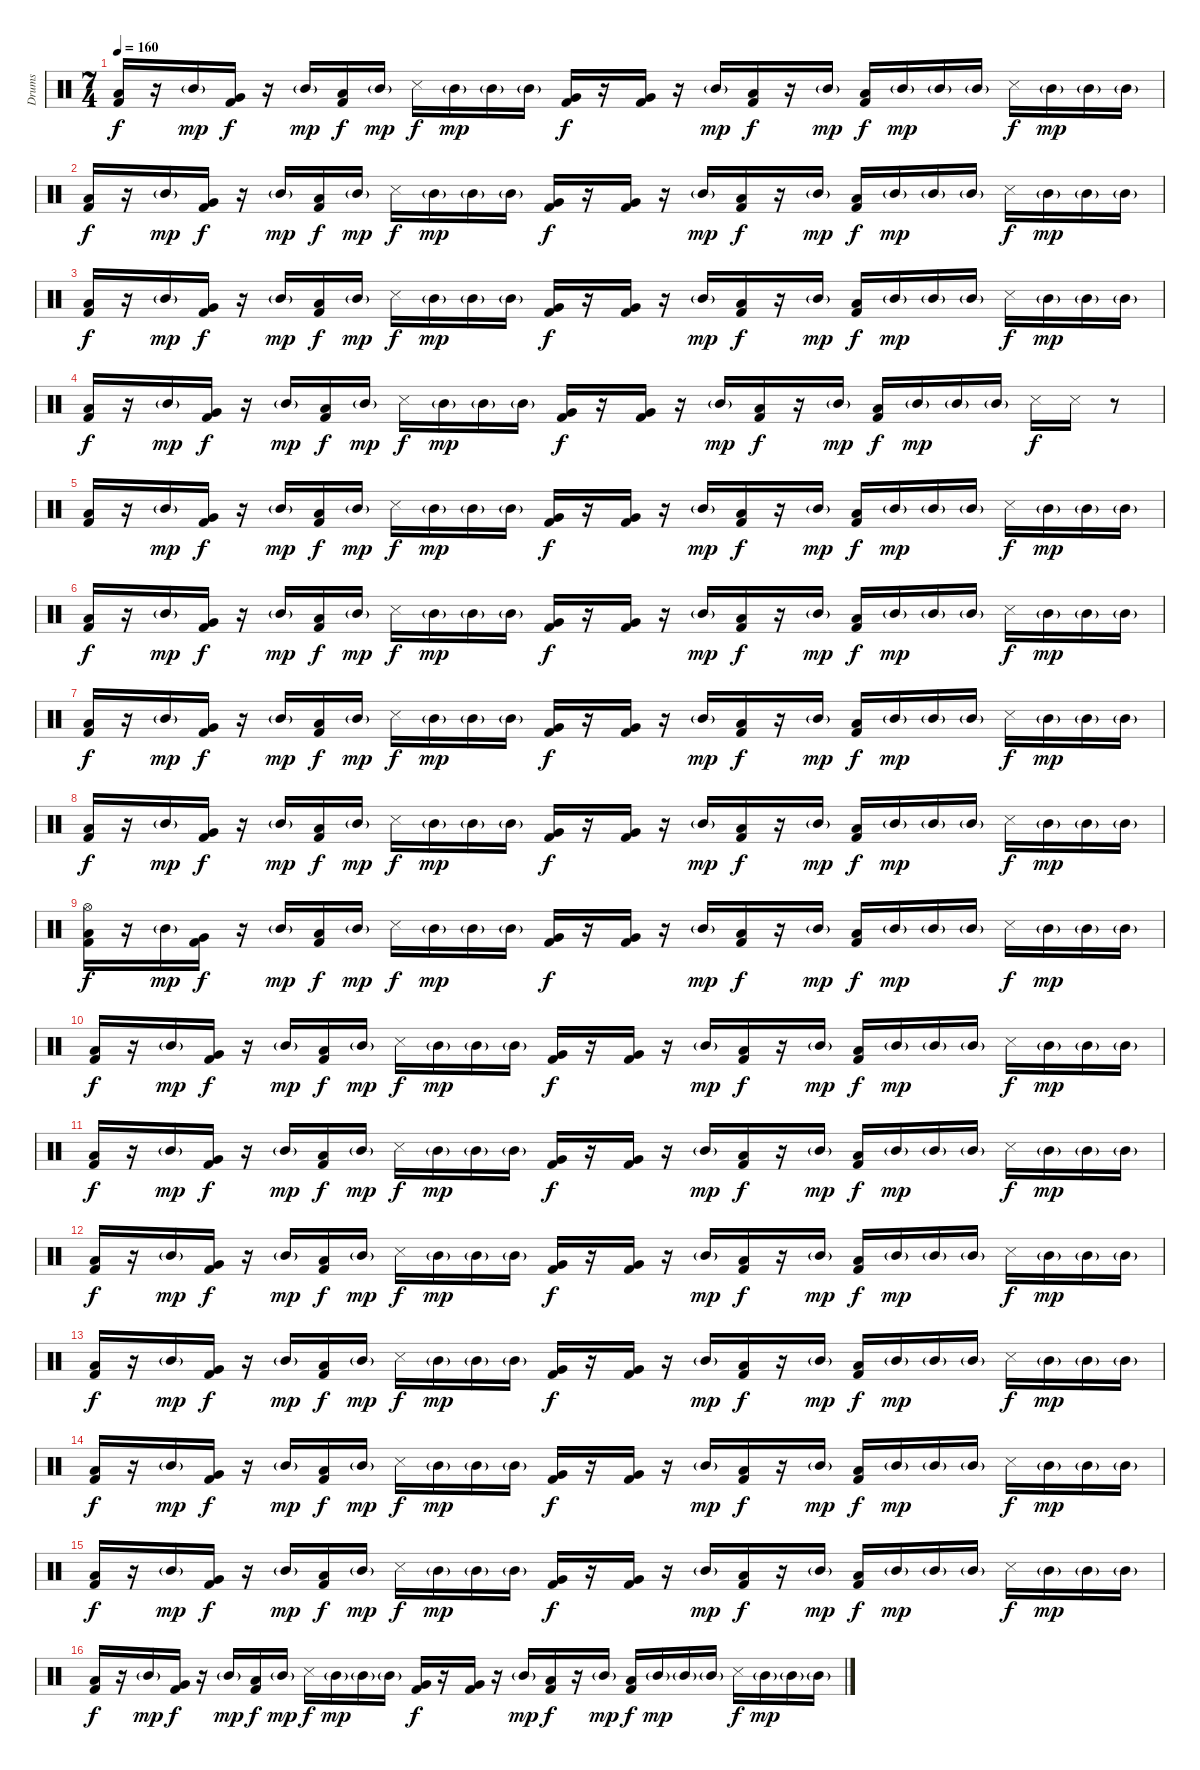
\track ("Drums" "Drums") {instrument percussion}
\staff {score}
\articulation defaults
\ts (7 4)
\tempo 160
\clef neutral
\ks c
("Low Floor Tom (hit)" "Kick (hit) 2").16{dy f} r.16 "Mid Tom (hit)"{g}.16{dy mp} ("Very Low Tom (hit)" "Kick (hit) 2").16{dy f} r.16 "Mid Tom (hit)"{g}.16{dy mp} ("Low Floor Tom (hit)" "Kick (hit) 2").16{dy f} "Mid Tom (hit)"{g}.16{dy mp} "Snare (side stick) 3".16{dy f} "Mid Tom (hit)"{g}.16{dy mp} "Mid Tom (hit)"{g}.16 "Mid Tom (hit)"{g}.16 ("Very Low Tom (hit)" "Kick (hit) 2").16{dy f} r.16 ("Very Low Tom (hit)" "Kick (hit) 2").16 r.16 "Mid Tom (hit)"{g}.16{dy mp} ("Low Floor Tom (hit)" "Kick (hit) 2").16{dy f} r.16 "Mid Tom (hit)"{g}.16{dy mp} ("Low Floor Tom (hit)" "Kick (hit) 2").16{dy f} "Mid Tom (hit)"{g}.16{dy mp} "Mid Tom (hit)"{g}.16 "Mid Tom (hit)"{g}.16 "Snare (side stick) 3".16{dy f} "Mid Tom (hit)"{g}.16{dy mp} "Mid Tom (hit)"{g}.16 "Mid Tom (hit)"{g}.16 |
("Low Floor Tom (hit)" "Kick (hit) 2").16{dy f} r.16 "Mid Tom (hit)"{g}.16{dy mp} ("Very Low Tom (hit)" "Kick (hit) 2").16{dy f} r.16 "Mid Tom (hit)"{g}.16{dy mp} ("Low Floor Tom (hit)" "Kick (hit) 2").16{dy f} "Mid Tom (hit)"{g}.16{dy mp} "Snare (side stick) 3".16{dy f} "Mid Tom (hit)"{g}.16{dy mp} "Mid Tom (hit)"{g}.16 "Mid Tom (hit)"{g}.16 ("Very Low Tom (hit)" "Kick (hit) 2").16{dy f} r.16 ("Very Low Tom (hit)" "Kick (hit) 2").16 r.16 "Mid Tom (hit)"{g}.16{dy mp} ("Low Floor Tom (hit)" "Kick (hit) 2").16{dy f} r.16 "Mid Tom (hit)"{g}.16{dy mp} ("Low Floor Tom (hit)" "Kick (hit) 2").16{dy f} "Mid Tom (hit)"{g}.16{dy mp} "Mid Tom (hit)"{g}.16 "Mid Tom (hit)"{g}.16 "Snare (side stick) 3".16{dy f} "Mid Tom (hit)"{g}.16{dy mp} "Mid Tom (hit)"{g}.16 "Mid Tom (hit)"{g}.16 |
("Low Floor Tom (hit)" "Kick (hit) 2").16{dy f} r.16 "Mid Tom (hit)"{g}.16{dy mp} ("Very Low Tom (hit)" "Kick (hit) 2").16{dy f} r.16 "Mid Tom (hit)"{g}.16{dy mp} ("Low Floor Tom (hit)" "Kick (hit) 2").16{dy f} "Mid Tom (hit)"{g}.16{dy mp} "Snare (side stick) 3".16{dy f} "Mid Tom (hit)"{g}.16{dy mp} "Mid Tom (hit)"{g}.16 "Mid Tom (hit)"{g}.16 ("Very Low Tom (hit)" "Kick (hit) 2").16{dy f} r.16 ("Very Low Tom (hit)" "Kick (hit) 2").16 r.16 "Mid Tom (hit)"{g}.16{dy mp} ("Low Floor Tom (hit)" "Kick (hit) 2").16{dy f} r.16 "Mid Tom (hit)"{g}.16{dy mp} ("Low Floor Tom (hit)" "Kick (hit) 2").16{dy f} "Mid Tom (hit)"{g}.16{dy mp} "Mid Tom (hit)"{g}.16 "Mid Tom (hit)"{g}.16 "Snare (side stick) 3".16{dy f} "Mid Tom (hit)"{g}.16{dy mp} "Mid Tom (hit)"{g}.16 "Mid Tom (hit)"{g}.16 |
("Low Floor Tom (hit)" "Kick (hit) 2").16{dy f} r.16 "Mid Tom (hit)"{g}.16{dy mp} ("Very Low Tom (hit)" "Kick (hit) 2").16{dy f} r.16 "Mid Tom (hit)"{g}.16{dy mp} ("Low Floor Tom (hit)" "Kick (hit) 2").16{dy f} "Mid Tom (hit)"{g}.16{dy mp} "Snare (side stick) 3".16{dy f} "Mid Tom (hit)"{g}.16{dy mp} "Mid Tom (hit)"{g}.16 "Mid Tom (hit)"{g}.16 ("Very Low Tom (hit)" "Kick (hit) 2").16{dy f} r.16 ("Very Low Tom (hit)" "Kick (hit) 2").16 r.16 "Mid Tom (hit)"{g}.16{dy mp} ("Low Floor Tom (hit)" "Kick (hit) 2").16{dy f} r.16 "Mid Tom (hit)"{g}.16{dy mp} ("Low Floor Tom (hit)" "Kick (hit) 2").16{dy f} "Mid Tom (hit)"{g}.16{dy mp} "Mid Tom (hit)"{g}.16 "Mid Tom (hit)"{g}.16 "Snare (side stick) 3".16{dy f} "Snare (side stick) 3".16 r.8 |
("Low Floor Tom (hit)" "Kick (hit) 2").16 r.16 "Mid Tom (hit)"{g}.16{dy mp} ("Very Low Tom (hit)" "Kick (hit) 2").16{dy f} r.16 "Mid Tom (hit)"{g}.16{dy mp} ("Low Floor Tom (hit)" "Kick (hit) 2").16{dy f} "Mid Tom (hit)"{g}.16{dy mp} "Snare (side stick) 3".16{dy f} "Mid Tom (hit)"{g}.16{dy mp} "Mid Tom (hit)"{g}.16 "Mid Tom (hit)"{g}.16 ("Very Low Tom (hit)" "Kick (hit) 2").16{dy f} r.16 ("Very Low Tom (hit)" "Kick (hit) 2").16 r.16 "Mid Tom (hit)"{g}.16{dy mp} ("Low Floor Tom (hit)" "Kick (hit) 2").16{dy f} r.16 "Mid Tom (hit)"{g}.16{dy mp} ("Low Floor Tom (hit)" "Kick (hit) 2").16{dy f} "Mid Tom (hit)"{g}.16{dy mp} "Mid Tom (hit)"{g}.16 "Mid Tom (hit)"{g}.16 "Snare (side stick) 3".16{dy f} "Mid Tom (hit)"{g}.16{dy mp} "Mid Tom (hit)"{g}.16 "Mid Tom (hit)"{g}.16 |
("Low Floor Tom (hit)" "Kick (hit) 2").16{dy f} r.16 "Mid Tom (hit)"{g}.16{dy mp} ("Very Low Tom (hit)" "Kick (hit) 2").16{dy f} r.16 "Mid Tom (hit)"{g}.16{dy mp} ("Low Floor Tom (hit)" "Kick (hit) 2").16{dy f} "Mid Tom (hit)"{g}.16{dy mp} "Snare (side stick) 3".16{dy f} "Mid Tom (hit)"{g}.16{dy mp} "Mid Tom (hit)"{g}.16 "Mid Tom (hit)"{g}.16 ("Very Low Tom (hit)" "Kick (hit) 2").16{dy f} r.16 ("Very Low Tom (hit)" "Kick (hit) 2").16 r.16 "Mid Tom (hit)"{g}.16{dy mp} ("Low Floor Tom (hit)" "Kick (hit) 2").16{dy f} r.16 "Mid Tom (hit)"{g}.16{dy mp} ("Low Floor Tom (hit)" "Kick (hit) 2").16{dy f} "Mid Tom (hit)"{g}.16{dy mp} "Mid Tom (hit)"{g}.16 "Mid Tom (hit)"{g}.16 "Snare (side stick) 3".16{dy f} "Mid Tom (hit)"{g}.16{dy mp} "Mid Tom (hit)"{g}.16 "Mid Tom (hit)"{g}.16 |
("Low Floor Tom (hit)" "Kick (hit) 2").16{dy f} r.16 "Mid Tom (hit)"{g}.16{dy mp} ("Very Low Tom (hit)" "Kick (hit) 2").16{dy f} r.16 "Mid Tom (hit)"{g}.16{dy mp} ("Low Floor Tom (hit)" "Kick (hit) 2").16{dy f} "Mid Tom (hit)"{g}.16{dy mp} "Snare (side stick) 3".16{dy f} "Mid Tom (hit)"{g}.16{dy mp} "Mid Tom (hit)"{g}.16 "Mid Tom (hit)"{g}.16 ("Very Low Tom (hit)" "Kick (hit) 2").16{dy f} r.16 ("Very Low Tom (hit)" "Kick (hit) 2").16 r.16 "Mid Tom (hit)"{g}.16{dy mp} ("Low Floor Tom (hit)" "Kick (hit) 2").16{dy f} r.16 "Mid Tom (hit)"{g}.16{dy mp} ("Low Floor Tom (hit)" "Kick (hit) 2").16{dy f} "Mid Tom (hit)"{g}.16{dy mp} "Mid Tom (hit)"{g}.16 "Mid Tom (hit)"{g}.16 "Snare (side stick) 3".16{dy f} "Mid Tom (hit)"{g}.16{dy mp} "Mid Tom (hit)"{g}.16 "Mid Tom (hit)"{g}.16 |
("Low Floor Tom (hit)" "Kick (hit) 2").16{dy f} r.16 "Mid Tom (hit)"{g}.16{dy mp} ("Very Low Tom (hit)" "Kick (hit) 2").16{dy f} r.16 "Mid Tom (hit)"{g}.16{dy mp} ("Low Floor Tom (hit)" "Kick (hit) 2").16{dy f} "Mid Tom (hit)"{g}.16{dy mp} "Snare (side stick) 3".16{dy f} "Mid Tom (hit)"{g}.16{dy mp} "Mid Tom (hit)"{g}.16 "Mid Tom (hit)"{g}.16 ("Very Low Tom (hit)" "Kick (hit) 2").16{dy f} r.16 ("Very Low Tom (hit)" "Kick (hit) 2").16 r.16 "Mid Tom (hit)"{g}.16{dy mp} ("Low Floor Tom (hit)" "Kick (hit) 2").16{dy f} r.16 "Mid Tom (hit)"{g}.16{dy mp} ("Low Floor Tom (hit)" "Kick (hit) 2").16{dy f} "Mid Tom (hit)"{g}.16{dy mp} "Mid Tom (hit)"{g}.16 "Mid Tom (hit)"{g}.16 "Snare (side stick) 3".16{dy f} "Mid Tom (hit)"{g}.16{dy mp} "Mid Tom (hit)"{g}.16 "Mid Tom (hit)"{g}.16 |
("Hi-Hat (open)" "Low Floor Tom (hit)" "Kick (hit) 2").16{dy f} r.16 "Mid Tom (hit)"{g}.16{dy mp} ("Very Low Tom (hit)" "Kick (hit) 2").16{dy f} r.16 "Mid Tom (hit)"{g}.16{dy mp} ("Low Floor Tom (hit)" "Kick (hit) 2").16{dy f} "Mid Tom (hit)"{g}.16{dy mp} "Snare (side stick) 3".16{dy f} "Mid Tom (hit)"{g}.16{dy mp} "Mid Tom (hit)"{g}.16 "Mid Tom (hit)"{g}.16 ("Very Low Tom (hit)" "Kick (hit) 2").16{dy f} r.16 ("Very Low Tom (hit)" "Kick (hit) 2").16 r.16 "Mid Tom (hit)"{g}.16{dy mp} ("Low Floor Tom (hit)" "Kick (hit) 2").16{dy f} r.16 "Mid Tom (hit)"{g}.16{dy mp} ("Low Floor Tom (hit)" "Kick (hit) 2").16{dy f} "Mid Tom (hit)"{g}.16{dy mp} "Mid Tom (hit)"{g}.16 "Mid Tom (hit)"{g}.16 "Snare (side stick) 3".16{dy f} "Mid Tom (hit)"{g}.16{dy mp} "Mid Tom (hit)"{g}.16 "Mid Tom (hit)"{g}.16 |
("Low Floor Tom (hit)" "Kick (hit) 2").16{dy f} r.16 "Mid Tom (hit)"{g}.16{dy mp} ("Very Low Tom (hit)" "Kick (hit) 2").16{dy f} r.16 "Mid Tom (hit)"{g}.16{dy mp} ("Low Floor Tom (hit)" "Kick (hit) 2").16{dy f} "Mid Tom (hit)"{g}.16{dy mp} "Snare (side stick) 3".16{dy f} "Mid Tom (hit)"{g}.16{dy mp} "Mid Tom (hit)"{g}.16 "Mid Tom (hit)"{g}.16 ("Very Low Tom (hit)" "Kick (hit) 2").16{dy f} r.16 ("Very Low Tom (hit)" "Kick (hit) 2").16 r.16 "Mid Tom (hit)"{g}.16{dy mp} ("Low Floor Tom (hit)" "Kick (hit) 2").16{dy f} r.16 "Mid Tom (hit)"{g}.16{dy mp} ("Low Floor Tom (hit)" "Kick (hit) 2").16{dy f} "Mid Tom (hit)"{g}.16{dy mp} "Mid Tom (hit)"{g}.16 "Mid Tom (hit)"{g}.16 "Snare (side stick) 3".16{dy f} "Mid Tom (hit)"{g}.16{dy mp} "Mid Tom (hit)"{g}.16 "Mid Tom (hit)"{g}.16 |
("Low Floor Tom (hit)" "Kick (hit) 2").16{dy f} r.16 "Mid Tom (hit)"{g}.16{dy mp} ("Very Low Tom (hit)" "Kick (hit) 2").16{dy f} r.16 "Mid Tom (hit)"{g}.16{dy mp} ("Low Floor Tom (hit)" "Kick (hit) 2").16{dy f} "Mid Tom (hit)"{g}.16{dy mp} "Snare (side stick) 3".16{dy f} "Mid Tom (hit)"{g}.16{dy mp} "Mid Tom (hit)"{g}.16 "Mid Tom (hit)"{g}.16 ("Very Low Tom (hit)" "Kick (hit) 2").16{dy f} r.16 ("Very Low Tom (hit)" "Kick (hit) 2").16 r.16 "Mid Tom (hit)"{g}.16{dy mp} ("Low Floor Tom (hit)" "Kick (hit) 2").16{dy f} r.16 "Mid Tom (hit)"{g}.16{dy mp} ("Low Floor Tom (hit)" "Kick (hit) 2").16{dy f} "Mid Tom (hit)"{g}.16{dy mp} "Mid Tom (hit)"{g}.16 "Mid Tom (hit)"{g}.16 "Snare (side stick) 3".16{dy f} "Mid Tom (hit)"{g}.16{dy mp} "Mid Tom (hit)"{g}.16 "Mid Tom (hit)"{g}.16 |
("Low Floor Tom (hit)" "Kick (hit) 2").16{dy f} r.16 "Mid Tom (hit)"{g}.16{dy mp} ("Very Low Tom (hit)" "Kick (hit) 2").16{dy f} r.16 "Mid Tom (hit)"{g}.16{dy mp} ("Low Floor Tom (hit)" "Kick (hit) 2").16{dy f} "Mid Tom (hit)"{g}.16{dy mp} "Snare (side stick) 3".16{dy f} "Mid Tom (hit)"{g}.16{dy mp} "Mid Tom (hit)"{g}.16 "Mid Tom (hit)"{g}.16 ("Very Low Tom (hit)" "Kick (hit) 2").16{dy f} r.16 ("Very Low Tom (hit)" "Kick (hit) 2").16 r.16 "Mid Tom (hit)"{g}.16{dy mp} ("Low Floor Tom (hit)" "Kick (hit) 2").16{dy f} r.16 "Mid Tom (hit)"{g}.16{dy mp} ("Low Floor Tom (hit)" "Kick (hit) 2").16{dy f} "Mid Tom (hit)"{g}.16{dy mp} "Mid Tom (hit)"{g}.16 "Mid Tom (hit)"{g}.16 "Snare (side stick) 3".16{dy f} "Mid Tom (hit)"{g}.16{dy mp} "Mid Tom (hit)"{g}.16 "Mid Tom (hit)"{g}.16 |
("Low Floor Tom (hit)" "Kick (hit) 2").16{dy f} r.16 "Mid Tom (hit)"{g}.16{dy mp} ("Very Low Tom (hit)" "Kick (hit) 2").16{dy f} r.16 "Mid Tom (hit)"{g}.16{dy mp} ("Low Floor Tom (hit)" "Kick (hit) 2").16{dy f} "Mid Tom (hit)"{g}.16{dy mp} "Snare (side stick) 3".16{dy f} "Mid Tom (hit)"{g}.16{dy mp} "Mid Tom (hit)"{g}.16 "Mid Tom (hit)"{g}.16 ("Very Low Tom (hit)" "Kick (hit) 2").16{dy f} r.16 ("Very Low Tom (hit)" "Kick (hit) 2").16 r.16 "Mid Tom (hit)"{g}.16{dy mp} ("Low Floor Tom (hit)" "Kick (hit) 2").16{dy f} r.16 "Mid Tom (hit)"{g}.16{dy mp} ("Low Floor Tom (hit)" "Kick (hit) 2").16{dy f} "Mid Tom (hit)"{g}.16{dy mp} "Mid Tom (hit)"{g}.16 "Mid Tom (hit)"{g}.16 "Snare (side stick) 3".16{dy f} "Mid Tom (hit)"{g}.16{dy mp} "Mid Tom (hit)"{g}.16 "Mid Tom (hit)"{g}.16 |
("Low Floor Tom (hit)" "Kick (hit) 2").16{dy f} r.16 "Mid Tom (hit)"{g}.16{dy mp} ("Very Low Tom (hit)" "Kick (hit) 2").16{dy f} r.16 "Mid Tom (hit)"{g}.16{dy mp} ("Low Floor Tom (hit)" "Kick (hit) 2").16{dy f} "Mid Tom (hit)"{g}.16{dy mp} "Snare (side stick) 3".16{dy f} "Mid Tom (hit)"{g}.16{dy mp} "Mid Tom (hit)"{g}.16 "Mid Tom (hit)"{g}.16 ("Very Low Tom (hit)" "Kick (hit) 2").16{dy f} r.16 ("Very Low Tom (hit)" "Kick (hit) 2").16 r.16 "Mid Tom (hit)"{g}.16{dy mp} ("Low Floor Tom (hit)" "Kick (hit) 2").16{dy f} r.16 "Mid Tom (hit)"{g}.16{dy mp} ("Low Floor Tom (hit)" "Kick (hit) 2").16{dy f} "Mid Tom (hit)"{g}.16{dy mp} "Mid Tom (hit)"{g}.16 "Mid Tom (hit)"{g}.16 "Snare (side stick) 3".16{dy f} "Mid Tom (hit)"{g}.16{dy mp} "Mid Tom (hit)"{g}.16 "Mid Tom (hit)"{g}.16 |
("Low Floor Tom (hit)" "Kick (hit) 2").16{dy f} r.16 "Mid Tom (hit)"{g}.16{dy mp} ("Very Low Tom (hit)" "Kick (hit) 2").16{dy f} r.16 "Mid Tom (hit)"{g}.16{dy mp} ("Low Floor Tom (hit)" "Kick (hit) 2").16{dy f} "Mid Tom (hit)"{g}.16{dy mp} "Snare (side stick) 3".16{dy f} "Mid Tom (hit)"{g}.16{dy mp} "Mid Tom (hit)"{g}.16 "Mid Tom (hit)"{g}.16 ("Very Low Tom (hit)" "Kick (hit) 2").16{dy f} r.16 ("Very Low Tom (hit)" "Kick (hit) 2").16 r.16 "Mid Tom (hit)"{g}.16{dy mp} ("Low Floor Tom (hit)" "Kick (hit) 2").16{dy f} r.16 "Mid Tom (hit)"{g}.16{dy mp} ("Low Floor Tom (hit)" "Kick (hit) 2").16{dy f} "Mid Tom (hit)"{g}.16{dy mp} "Mid Tom (hit)"{g}.16 "Mid Tom (hit)"{g}.16 "Snare (side stick) 3".16{dy f} "Mid Tom (hit)"{g}.16{dy mp} "Mid Tom (hit)"{g}.16 "Mid Tom (hit)"{g}.16 |
("Low Floor Tom (hit)" "Kick (hit) 2").16{dy f} r.16 "Mid Tom (hit)"{g}.16{dy mp} ("Very Low Tom (hit)" "Kick (hit) 2").16{dy f} r.16 "Mid Tom (hit)"{g}.16{dy mp} ("Low Floor Tom (hit)" "Kick (hit) 2").16{dy f} "Mid Tom (hit)"{g}.16{dy mp} "Snare (side stick) 3".16{dy f} "Mid Tom (hit)"{g}.16{dy mp} "Mid Tom (hit)"{g}.16 "Mid Tom (hit)"{g}.16 ("Very Low Tom (hit)" "Kick (hit) 2").16{dy f} r.16 ("Very Low Tom (hit)" "Kick (hit) 2").16 r.16 "Mid Tom (hit)"{g}.16{dy mp} ("Low Floor Tom (hit)" "Kick (hit) 2").16{dy f} r.16 "Mid Tom (hit)"{g}.16{dy mp} ("Low Floor Tom (hit)" "Kick (hit) 2").16{dy f} "Mid Tom (hit)"{g}.16{dy mp} "Mid Tom (hit)"{g}.16 "Mid Tom (hit)"{g}.16 "Snare (side stick) 3".16{dy f} "Mid Tom (hit)"{g}.16{dy mp} "Mid Tom (hit)"{g}.16 "Mid Tom (hit)"{g}.16
